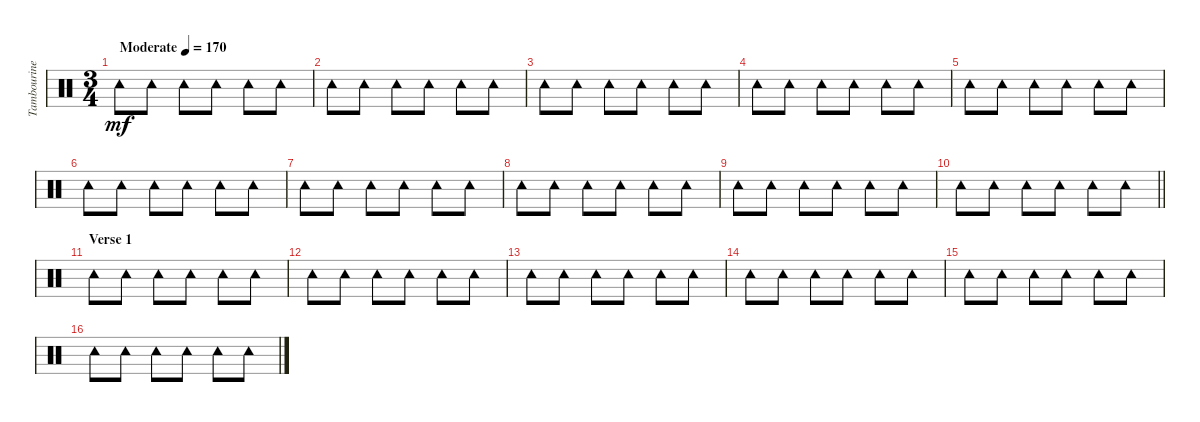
\track ("Tambourine" "Tambourine") {instrument percussion}
\staff {score}
\articulation defaults
\ts (3 4)
\tempo (170 "Moderate")
\clef neutral
\ks c "Tambourine (hit)".8{dy mf} "Tambourine (hit)".8 "Tambourine (hit)".8 "Tambourine (hit)".8 "Tambourine (hit)".8 "Tambourine (hit)".8
|
"Tambourine (hit)".8 "Tambourine (hit)".8 "Tambourine (hit)".8 "Tambourine (hit)".8 "Tambourine (hit)".8 "Tambourine (hit)".8 |
"Tambourine (hit)".8 "Tambourine (hit)".8 "Tambourine (hit)".8 "Tambourine (hit)".8 "Tambourine (hit)".8 "Tambourine (hit)".8 |
"Tambourine (hit)".8 "Tambourine (hit)".8 "Tambourine (hit)".8 "Tambourine (hit)".8 "Tambourine (hit)".8 "Tambourine (hit)".8 |
"Tambourine (hit)".8 "Tambourine (hit)".8 "Tambourine (hit)".8 "Tambourine (hit)".8 "Tambourine (hit)".8 "Tambourine (hit)".8 |
"Tambourine (hit)".8 "Tambourine (hit)".8 "Tambourine (hit)".8 "Tambourine (hit)".8 "Tambourine (hit)".8 "Tambourine (hit)".8 |
"Tambourine (hit)".8 "Tambourine (hit)".8 "Tambourine (hit)".8 "Tambourine (hit)".8 "Tambourine (hit)".8 "Tambourine (hit)".8 |
"Tambourine (hit)".8 "Tambourine (hit)".8 "Tambourine (hit)".8 "Tambourine (hit)".8 "Tambourine (hit)".8 "Tambourine (hit)".8 |
"Tambourine (hit)".8 "Tambourine (hit)".8 "Tambourine (hit)".8 "Tambourine (hit)".8 "Tambourine (hit)".8 "Tambourine (hit)".8 |
\barLineRight lightlight "Tambourine (hit)".8 "Tambourine (hit)".8 "Tambourine (hit)".8 "Tambourine (hit)".8 "Tambourine (hit)".8 "Tambourine (hit)".8
|
\section ("" "Verse 1")
"Tambourine (hit)".8 "Tambourine (hit)".8 "Tambourine (hit)".8 "Tambourine (hit)".8 "Tambourine (hit)".8 "Tambourine (hit)".8 |
"Tambourine (hit)".8 "Tambourine (hit)".8 "Tambourine (hit)".8 "Tambourine (hit)".8 "Tambourine (hit)".8 "Tambourine (hit)".8 |
"Tambourine (hit)".8 "Tambourine (hit)".8 "Tambourine (hit)".8 "Tambourine (hit)".8 "Tambourine (hit)".8 "Tambourine (hit)".8 |
"Tambourine (hit)".8 "Tambourine (hit)".8 "Tambourine (hit)".8 "Tambourine (hit)".8 "Tambourine (hit)".8 "Tambourine (hit)".8 |
"Tambourine (hit)".8 "Tambourine (hit)".8 "Tambourine (hit)".8 "Tambourine (hit)".8 "Tambourine (hit)".8 "Tambourine (hit)".8 |
"Tambourine (hit)".8 "Tambourine (hit)".8 "Tambourine (hit)".8 "Tambourine (hit)".8 "Tambourine (hit)".8 "Tambourine (hit)".8
